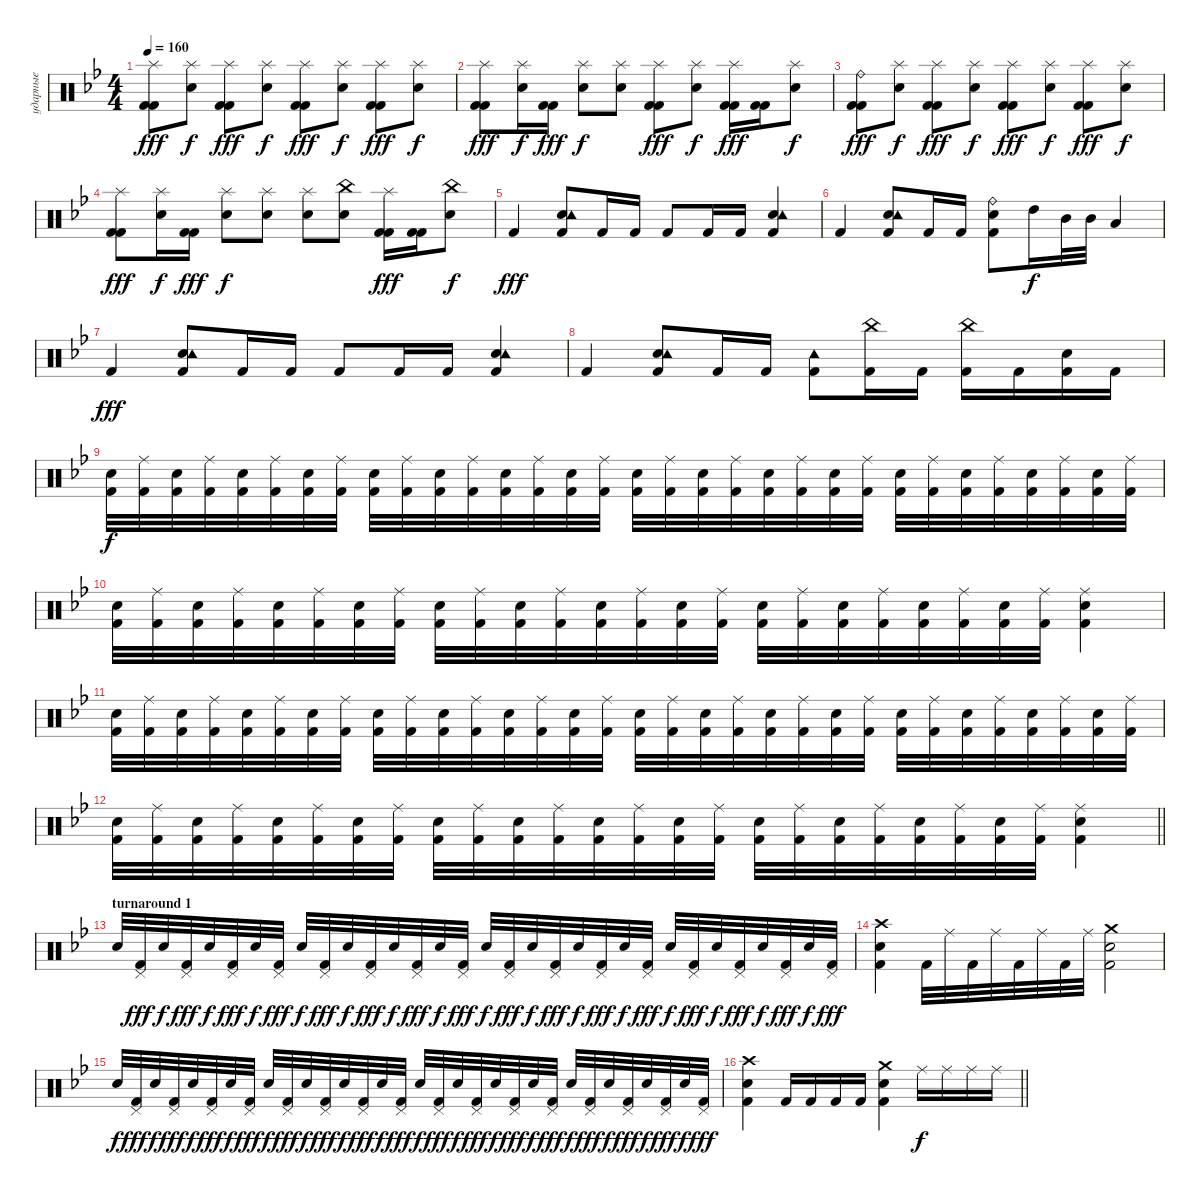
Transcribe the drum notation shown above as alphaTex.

\track ("ударные" "ударные") {instrument percussion}
\staff {score}
\articulation defaults
\ts (4 4)
\tempo 160
\clef neutral
\ks gminor
("Splash (hit)" "Kick (hit) 2" "Kick (hit) 2").8{dy fff} ("Splash (hit)" "Electric Snare (hit)").8{dy f} ("Splash (hit)" "Kick (hit) 2" "Kick (hit) 2").8{dy fff} ("Splash (hit)" "Electric Snare (hit)").8{dy f} ("Splash (hit)" "Kick (hit) 2" "Kick (hit) 2").8{dy fff} ("Splash (hit)" "Electric Snare (hit)").8{dy f} ("Splash (hit)" "Kick (hit) 2" "Kick (hit) 2").8{dy fff} ("Splash (hit)" "Electric Snare (hit)").8{dy f} |
("Splash (hit)" "Kick (hit) 2" "Kick (hit) 2").8{dy fff} ("Splash (hit)" "Electric Snare (hit)").16{dy f} ("Kick (hit) 2" "Kick (hit) 2").16{dy fff} ("Splash (hit)" "Electric Snare (hit)").8{dy f} ("Splash (hit)" "Electric Snare (hit)").8 ("Splash (hit)" "Kick (hit) 2" "Kick (hit) 2").8{dy fff} ("Splash (hit)" "Electric Snare (hit)").8{dy f} ("Splash (hit)" "Kick (hit) 2" "Kick (hit) 2").16{dy fff} ("Kick (hit) 2" "Kick (hit) 2").16 ("Splash (hit)" "Electric Snare (hit)").8{dy f} |
("Ride (bell)" "Kick (hit) 2" "Kick (hit) 2").8{dy fff} ("Splash (hit)" "Electric Snare (hit)").8{dy f} ("Splash (hit)" "Kick (hit) 2" "Kick (hit) 2").8{dy fff} ("Splash (hit)" "Electric Snare (hit)").8{dy f} ("Splash (hit)" "Kick (hit) 2" "Kick (hit) 2").8{dy fff} ("Splash (hit)" "Electric Snare (hit)").8{dy f} ("Splash (hit)" "Kick (hit) 2" "Kick (hit) 2").8{dy fff} ("Splash (hit)" "Electric Snare (hit)").8{dy f} |
("Splash (hit)" "Kick (hit) 2" "Kick (hit) 2").8{dy fff} ("Splash (hit)" "Electric Snare (hit)").16{dy f} ("Kick (hit) 2" "Kick (hit) 2").16{dy fff} ("Splash (hit)" "Electric Snare (hit)").8{dy f} ("Splash (hit)" "Electric Snare (hit)").8 ("Splash (hit)" "Electric Snare (hit)").8 ("China (hit)" "Electric Snare (hit)").8 ("Splash (hit)" "Kick (hit) 2" "Kick (hit) 2").16{dy fff} ("Kick (hit) 2" "Kick (hit) 2").16 ("China (hit)" "Electric Snare (hit)").8{dy f} |
"Kick (hit) 2".4{dy fff} ("Electric Snare (hit)" "Tambourine (hit)" "Kick (hit) 2").8 "Kick (hit) 2".16 "Kick (hit) 2".16 "Kick (hit) 2".8 "Kick (hit) 2".16 "Kick (hit) 2".16 ("Electric Snare (hit)" "Tambourine (hit)" "Kick (hit) 2").4 |
"Kick (hit) 2".4 ("Electric Snare (hit)" "Tambourine (hit)" "Kick (hit) 2").8 "Kick (hit) 2".16 "Kick (hit) 2".16 ("Ride (bell)" "Electric Snare (hit)" "Kick (hit) 2").8 "High Tom (hit)".16{dy f} "Mid Tom (hit)".32 "Mid Tom (hit)".32 "Low Tom (hit)".4 |
"Kick (hit) 2".4{dy fff} ("Electric Snare (hit)" "Tambourine (hit)" "Kick (hit) 2").8 "Kick (hit) 2".16 "Kick (hit) 2".16 "Kick (hit) 2".8 "Kick (hit) 2".16 "Kick (hit) 2".16 ("Electric Snare (hit)" "Tambourine (hit)" "Kick (hit) 2").4 |
"Kick (hit) 2".4 ("Electric Snare (hit)" "Tambourine (hit)" "Kick (hit) 2").8 "Kick (hit) 2".16 "Kick (hit) 2".16 ("Tambourine (hit)" "Kick (hit) 2").8 ("China (hit)" "Kick (hit) 2").16 "Kick (hit) 2".16 ("China (hit)" "Kick (hit) 2").16 "Kick (hit) 2".16 ("Electric Snare (hit)" "Kick (hit) 2").16 "Kick (hit) 2".16 |
("Kick (hit) 2" "Electric Snare (hit)").32{dy f} ("Kick (hit) 2" "Ride (middle)").32 ("Kick (hit) 2" "Electric Snare (hit)").32 ("Kick (hit) 2" "Ride (middle)").32 ("Kick (hit) 2" "Electric Snare (hit)").32 ("Kick (hit) 2" "Ride (middle)").32 ("Kick (hit) 2" "Electric Snare (hit)").32 ("Kick (hit) 2" "Ride (middle)").32 ("Kick (hit) 2" "Electric Snare (hit)").32 ("Kick (hit) 2" "Ride (middle)").32 ("Kick (hit) 2" "Electric Snare (hit)").32 ("Kick (hit) 2" "Ride (middle)").32 ("Kick (hit) 2" "Electric Snare (hit)").32 ("Kick (hit) 2" "Ride (middle)").32 ("Kick (hit) 2" "Electric Snare (hit)").32 ("Kick (hit) 2" "Ride (middle)").32 ("Kick (hit) 2" "Electric Snare (hit)").32 ("Kick (hit) 2" "Ride (middle)").32 ("Kick (hit) 2" "Electric Snare (hit)").32 ("Kick (hit) 2" "Ride (middle)").32 ("Kick (hit) 2" "Electric Snare (hit)").32 ("Kick (hit) 2" "Ride (middle)").32 ("Kick (hit) 2" "Electric Snare (hit)").32 ("Kick (hit) 2" "Ride (middle)").32 ("Kick (hit) 2" "Electric Snare (hit)").32 ("Kick (hit) 2" "Ride (middle)").32 ("Kick (hit) 2" "Electric Snare (hit)").32 ("Kick (hit) 2" "Ride (middle)").32 ("Kick (hit) 2" "Electric Snare (hit)").32 ("Kick (hit) 2" "Ride (middle)").32 ("Kick (hit) 2" "Electric Snare (hit)").32 ("Kick (hit) 2" "Ride (middle)").32 |
("Kick (hit) 2" "Electric Snare (hit)").32 ("Kick (hit) 2" "Ride (middle)").32 ("Kick (hit) 2" "Electric Snare (hit)").32 ("Kick (hit) 2" "Ride (middle)").32 ("Kick (hit) 2" "Electric Snare (hit)").32 ("Kick (hit) 2" "Ride (middle)").32 ("Kick (hit) 2" "Electric Snare (hit)").32 ("Kick (hit) 2" "Ride (middle)").32 ("Kick (hit) 2" "Electric Snare (hit)").32 ("Kick (hit) 2" "Ride (middle)").32 ("Kick (hit) 2" "Electric Snare (hit)").32 ("Kick (hit) 2" "Ride (middle)").32 ("Kick (hit) 2" "Electric Snare (hit)").32 ("Kick (hit) 2" "Ride (middle)").32 ("Kick (hit) 2" "Electric Snare (hit)").32 ("Kick (hit) 2" "Ride (middle)").32 ("Kick (hit) 2" "Electric Snare (hit)").32 ("Kick (hit) 2" "Ride (middle)").32 ("Kick (hit) 2" "Electric Snare (hit)").32 ("Kick (hit) 2" "Ride (middle)").32 ("Kick (hit) 2" "Electric Snare (hit)").32 ("Kick (hit) 2" "Ride (middle)").32 ("Kick (hit) 2" "Electric Snare (hit)").32 ("Kick (hit) 2" "Ride (middle)").32 ("Kick (hit) 2" "Electric Snare (hit)" "Ride (middle)").4 |
("Kick (hit) 2" "Electric Snare (hit)").32 ("Kick (hit) 2" "Ride (middle)").32 ("Kick (hit) 2" "Electric Snare (hit)").32 ("Kick (hit) 2" "Ride (middle)").32 ("Kick (hit) 2" "Electric Snare (hit)").32 ("Kick (hit) 2" "Ride (middle)").32 ("Kick (hit) 2" "Electric Snare (hit)").32 ("Kick (hit) 2" "Ride (middle)").32 ("Kick (hit) 2" "Electric Snare (hit)").32 ("Kick (hit) 2" "Ride (middle)").32 ("Kick (hit) 2" "Electric Snare (hit)").32 ("Kick (hit) 2" "Ride (middle)").32 ("Kick (hit) 2" "Electric Snare (hit)").32 ("Kick (hit) 2" "Ride (middle)").32 ("Kick (hit) 2" "Electric Snare (hit)").32 ("Kick (hit) 2" "Ride (middle)").32 ("Kick (hit) 2" "Electric Snare (hit)").32 ("Kick (hit) 2" "Ride (middle)").32 ("Kick (hit) 2" "Electric Snare (hit)").32 ("Kick (hit) 2" "Ride (middle)").32 ("Kick (hit) 2" "Electric Snare (hit)").32 ("Kick (hit) 2" "Ride (middle)").32 ("Kick (hit) 2" "Electric Snare (hit)").32 ("Kick (hit) 2" "Ride (middle)").32 ("Kick (hit) 2" "Electric Snare (hit)").32 ("Kick (hit) 2" "Ride (middle)").32 ("Kick (hit) 2" "Electric Snare (hit)").32 ("Kick (hit) 2" "Ride (middle)").32 ("Kick (hit) 2" "Electric Snare (hit)").32 ("Kick (hit) 2" "Ride (middle)").32 ("Kick (hit) 2" "Electric Snare (hit)").32 ("Kick (hit) 2" "Ride (middle)").32 |
\barLineRight lightlight
("Kick (hit) 2" "Electric Snare (hit)").32 ("Kick (hit) 2" "Ride (middle)").32 ("Kick (hit) 2" "Electric Snare (hit)").32 ("Kick (hit) 2" "Ride (middle)").32 ("Kick (hit) 2" "Electric Snare (hit)").32 ("Kick (hit) 2" "Ride (middle)").32 ("Kick (hit) 2" "Electric Snare (hit)").32 ("Kick (hit) 2" "Ride (middle)").32 ("Kick (hit) 2" "Electric Snare (hit)").32 ("Kick (hit) 2" "Ride (middle)").32 ("Kick (hit) 2" "Electric Snare (hit)").32 ("Kick (hit) 2" "Ride (middle)").32 ("Kick (hit) 2" "Electric Snare (hit)").32 ("Kick (hit) 2" "Ride (middle)").32 ("Kick (hit) 2" "Electric Snare (hit)").32 ("Kick (hit) 2" "Ride (middle)").32 ("Kick (hit) 2" "Electric Snare (hit)").32 ("Kick (hit) 2" "Ride (middle)").32 ("Kick (hit) 2" "Electric Snare (hit)").32 ("Kick (hit) 2" "Ride (middle)").32 ("Kick (hit) 2" "Electric Snare (hit)").32 ("Kick (hit) 2" "Ride (middle)").32 ("Kick (hit) 2" "Electric Snare (hit)").32 ("Kick (hit) 2" "Ride (middle)").32 ("Kick (hit) 2" "Electric Snare (hit)" "Ride (middle)").4 |
\section ("" "turnaround 1")
"Electric Snare (hit)".32 ("Kick (hit) 2" "Pedal Hi-Hat (hit)").32{dy fff} "Electric Snare (hit)".32{dy f} ("Kick (hit) 2" "Pedal Hi-Hat (hit)").32{dy fff} "Electric Snare (hit)".32{dy f} ("Kick (hit) 2" "Pedal Hi-Hat (hit)").32{dy fff} "Electric Snare (hit)".32{dy f} ("Kick (hit) 2" "Pedal Hi-Hat (hit)").32{dy fff} "Electric Snare (hit)".32{dy f} ("Kick (hit) 2" "Pedal Hi-Hat (hit)").32{dy fff} "Electric Snare (hit)".32{dy f} ("Kick (hit) 2" "Pedal Hi-Hat (hit)").32{dy fff} "Electric Snare (hit)".32{dy f} ("Kick (hit) 2" "Pedal Hi-Hat (hit)").32{dy fff} "Electric Snare (hit)".32{dy f} ("Kick (hit) 2" "Pedal Hi-Hat (hit)").32{dy fff} "Electric Snare (hit)".32{dy f} ("Kick (hit) 2" "Pedal Hi-Hat (hit)").32{dy fff} "Electric Snare (hit)".32{dy f} ("Kick (hit) 2" "Pedal Hi-Hat (hit)").32{dy fff} "Electric Snare (hit)".32{dy f} ("Kick (hit) 2" "Pedal Hi-Hat (hit)").32{dy fff} "Electric Snare (hit)".32{dy f} ("Kick (hit) 2" "Pedal Hi-Hat (hit)").32{dy fff} "Electric Snare (hit)".32{dy f} ("Kick (hit) 2" "Pedal Hi-Hat (hit)").32{dy fff} "Electric Snare (hit)".32{dy f} ("Kick (hit) 2" "Pedal Hi-Hat (hit)").32{dy fff} "Electric Snare (hit)".32{dy f} ("Kick (hit) 2" "Pedal Hi-Hat (hit)").32{dy fff} "Electric Snare (hit)".32{dy f} ("Kick (hit) 2" "Pedal Hi-Hat (hit)").32{dy fff} |
("Crash high (hit)" "Electric Snare (hit)" "Kick (hit) 2").4 "Kick (hit) 2".32 "Ride (middle)".32 "Kick (hit) 2".32 "Ride (middle)".32 "Kick (hit) 2".32 "Ride (middle)".32 "Kick (hit) 2".32 "Ride (middle)".32 ("Crash medium (hit)" "Electric Snare (hit)" "Kick (hit) 2").2 |
"Electric Snare (hit)".32{dy f} ("Kick (hit) 2" "Pedal Hi-Hat (hit)").32{dy fff} "Electric Snare (hit)".32{dy f} ("Kick (hit) 2" "Pedal Hi-Hat (hit)").32{dy fff} "Electric Snare (hit)".32{dy f} ("Kick (hit) 2" "Pedal Hi-Hat (hit)").32{dy fff} "Electric Snare (hit)".32{dy f} ("Kick (hit) 2" "Pedal Hi-Hat (hit)").32{dy fff} "Electric Snare (hit)".32{dy f} ("Kick (hit) 2" "Pedal Hi-Hat (hit)").32{dy fff} "Electric Snare (hit)".32{dy f} ("Kick (hit) 2" "Pedal Hi-Hat (hit)").32{dy fff} "Electric Snare (hit)".32{dy f} ("Kick (hit) 2" "Pedal Hi-Hat (hit)").32{dy fff} "Electric Snare (hit)".32{dy f} ("Kick (hit) 2" "Pedal Hi-Hat (hit)").32{dy fff} "Electric Snare (hit)".32{dy f} ("Kick (hit) 2" "Pedal Hi-Hat (hit)").32{dy fff} "Electric Snare (hit)".32{dy f} ("Kick (hit) 2" "Pedal Hi-Hat (hit)").32{dy fff} "Electric Snare (hit)".32{dy f} ("Kick (hit) 2" "Pedal Hi-Hat (hit)").32{dy fff} "Electric Snare (hit)".32{dy f} ("Kick (hit) 2" "Pedal Hi-Hat (hit)").32{dy fff} "Electric Snare (hit)".32{dy f} ("Kick (hit) 2" "Pedal Hi-Hat (hit)").32{dy fff} "Electric Snare (hit)".32{dy f} ("Kick (hit) 2" "Pedal Hi-Hat (hit)").32{dy fff} "Electric Snare (hit)".32{dy f} ("Kick (hit) 2" "Pedal Hi-Hat (hit)").32{dy fff} "Electric Snare (hit)".32{dy f} ("Kick (hit) 2" "Pedal Hi-Hat (hit)").32{dy fff} |
\barLineRight lightlight
("Crash high (hit)" "Electric Snare (hit)" "Kick (hit) 2").4 "Kick (hit) 2".16 "Kick (hit) 2".16 "Kick (hit) 2".16 "Kick (hit) 2".16 ("Crash medium (hit)" "Electric Snare (hit)" "Kick (hit) 2").4 "Ride (middle)".16{dy f} "Ride (middle)".16 "Ride (middle)".16 "Ride (middle)".16
